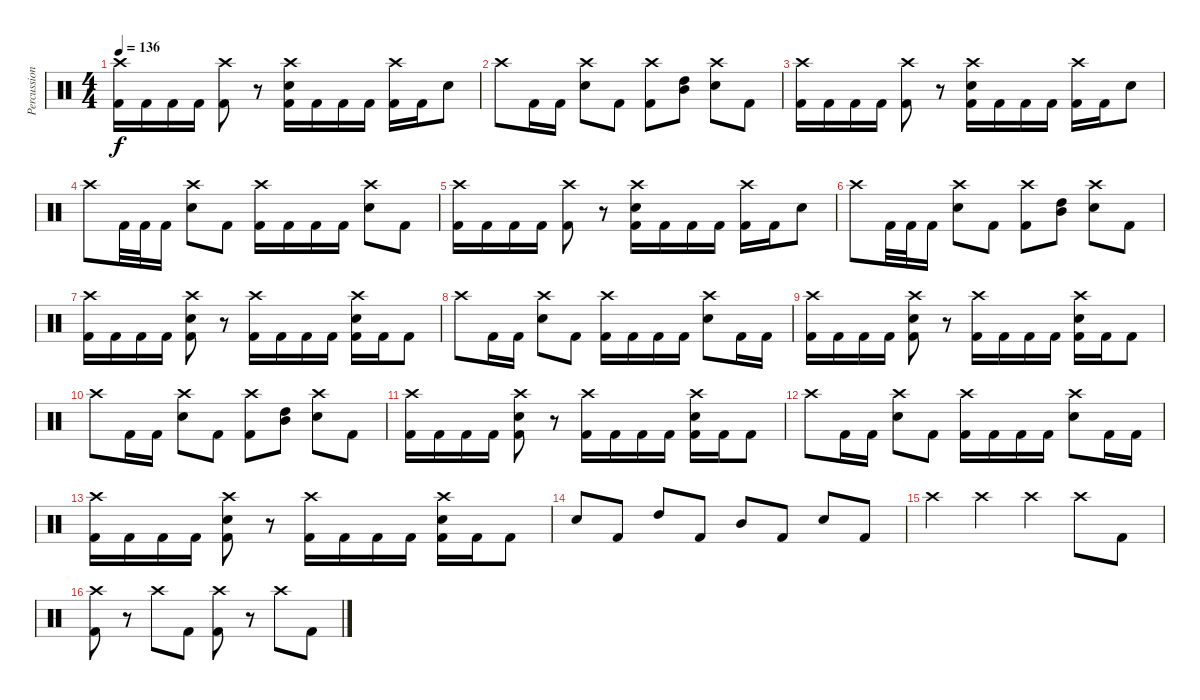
\track ("Percussion" "Percussion") {instrument percussion}
\staff {score}
\articulation defaults
\ts (4 4)
\tempo 136
\clef neutral
\ks c
("Crash high (hit)" "Kick (hit) 2").16{dy f} "Kick (hit) 2".16 "Kick (hit) 2".16 "Kick (hit) 2".16 ("Crash high (hit)" "Kick (hit) 2").8 r.8 ("Crash high (hit)" "Electric Snare (hit)" "Kick (hit) 2").16 "Kick (hit) 2".16 "Kick (hit) 2".16 "Kick (hit) 2".16 ("Crash high (hit)" "Kick (hit) 2").16 "Kick (hit) 2".16 "Electric Snare (hit)".8 |
"Crash high (hit)".8 "Kick (hit) 2".16 "Kick (hit) 2".16 ("Crash high (hit)" "Electric Snare (hit)").8 "Kick (hit) 2".8 ("Crash high (hit)" "Kick (hit) 2").8 ("High Tom (hit)" "Mid Tom (hit)").8 ("Crash high (hit)" "Electric Snare (hit)").8 "Kick (hit) 2".8 |
("Crash high (hit)" "Kick (hit) 2").16 "Kick (hit) 2".16 "Kick (hit) 2".16 "Kick (hit) 2".16 ("Crash high (hit)" "Kick (hit) 2").8 r.8 ("Crash high (hit)" "Electric Snare (hit)" "Kick (hit) 2").16 "Kick (hit) 2".16 "Kick (hit) 2".16 "Kick (hit) 2".16 ("Crash high (hit)" "Kick (hit) 2").16 "Kick (hit) 2".16 "Electric Snare (hit)".8 |
"Crash high (hit)".8 "Kick (hit) 2".32 "Kick (hit) 2".32 "Kick (hit) 2".16 ("Crash high (hit)" "Electric Snare (hit)").8 "Kick (hit) 2".8 ("Crash high (hit)" "Kick (hit) 2").16 "Kick (hit) 2".16 "Kick (hit) 2".16 "Kick (hit) 2".16 ("Crash high (hit)" "Electric Snare (hit)").8 "Kick (hit) 2".8 |
("Crash high (hit)" "Kick (hit) 2").16 "Kick (hit) 2".16 "Kick (hit) 2".16 "Kick (hit) 2".16 ("Crash high (hit)" "Kick (hit) 2").8 r.8 ("Crash high (hit)" "Electric Snare (hit)" "Kick (hit) 2").16 "Kick (hit) 2".16 "Kick (hit) 2".16 "Kick (hit) 2".16 ("Crash high (hit)" "Kick (hit) 2").16 "Kick (hit) 2".16 "Electric Snare (hit)".8 |
"Crash high (hit)".8 "Kick (hit) 2".32 "Kick (hit) 2".32 "Kick (hit) 2".16 ("Crash high (hit)" "Electric Snare (hit)").8 "Kick (hit) 2".8 ("Crash high (hit)" "Kick (hit) 2").8 ("High Tom (hit)" "Mid Tom (hit)").8 ("Crash high (hit)" "Electric Snare (hit)").8 "Kick (hit) 2".8 |
("Crash high (hit)" "Kick (hit) 2").16 "Kick (hit) 2".16 "Kick (hit) 2".16 "Kick (hit) 2".16 ("Crash high (hit)" "Electric Snare (hit)" "Kick (hit) 2").8 r.8 ("Crash high (hit)" "Kick (hit) 2").16 "Kick (hit) 2".16 "Kick (hit) 2".16 "Kick (hit) 2".16 ("Crash high (hit)" "Electric Snare (hit)" "Kick (hit) 2").16 "Kick (hit) 2".16 "Kick (hit) 2".8 |
"Crash high (hit)".8 "Kick (hit) 2".16 "Kick (hit) 2".16 ("Crash high (hit)" "Electric Snare (hit)").8 "Kick (hit) 2".8 ("Crash high (hit)" "Kick (hit) 2").16 "Kick (hit) 2".16 "Kick (hit) 2".16 "Kick (hit) 2".16 ("Crash high (hit)" "Electric Snare (hit)").8 "Kick (hit) 2".16 "Kick (hit) 2".16 |
("Crash high (hit)" "Kick (hit) 2").16 "Kick (hit) 2".16 "Kick (hit) 2".16 "Kick (hit) 2".16 ("Crash high (hit)" "Electric Snare (hit)" "Kick (hit) 2").8 r.8 ("Crash high (hit)" "Kick (hit) 2").16 "Kick (hit) 2".16 "Kick (hit) 2".16 "Kick (hit) 2".16 ("Crash high (hit)" "Electric Snare (hit)" "Kick (hit) 2").16 "Kick (hit) 2".16 "Kick (hit) 2".8 |
"Crash high (hit)".8 "Kick (hit) 2".16 "Kick (hit) 2".16 ("Crash high (hit)" "Electric Snare (hit)").8 "Kick (hit) 2".8 ("Crash high (hit)" "Kick (hit) 2").8 ("High Tom (hit)" "Mid Tom (hit)").8 ("Crash high (hit)" "Electric Snare (hit)").8 "Kick (hit) 2".8 |
("Crash high (hit)" "Kick (hit) 2").16 "Kick (hit) 2".16 "Kick (hit) 2".16 "Kick (hit) 2".16 ("Crash high (hit)" "Electric Snare (hit)" "Kick (hit) 2").8 r.8 ("Crash high (hit)" "Kick (hit) 2").16 "Kick (hit) 2".16 "Kick (hit) 2".16 "Kick (hit) 2".16 ("Crash high (hit)" "Electric Snare (hit)" "Kick (hit) 2").16 "Kick (hit) 2".16 "Kick (hit) 2".8 |
"Crash high (hit)".8 "Kick (hit) 2".16 "Kick (hit) 2".16 ("Crash high (hit)" "Electric Snare (hit)").8 "Kick (hit) 2".8 ("Crash high (hit)" "Kick (hit) 2").16 "Kick (hit) 2".16 "Kick (hit) 2".16 "Kick (hit) 2".16 ("Crash high (hit)" "Electric Snare (hit)").8 "Kick (hit) 2".16 "Kick (hit) 2".16 |
("Crash high (hit)" "Kick (hit) 2").16 "Kick (hit) 2".16 "Kick (hit) 2".16 "Kick (hit) 2".16 ("Crash high (hit)" "Electric Snare (hit)" "Kick (hit) 2").8 r.8 ("Crash high (hit)" "Kick (hit) 2").16 "Kick (hit) 2".16 "Kick (hit) 2".16 "Kick (hit) 2".16 ("Crash high (hit)" "Electric Snare (hit)" "Kick (hit) 2").16 "Kick (hit) 2".16 "Kick (hit) 2".8 |
"Electric Snare (hit)".8 "Kick (hit) 2".8 "High Tom (hit)".8 "Kick (hit) 2".8 "Mid Tom (hit)".8 "Kick (hit) 2".8 "Electric Snare (hit)".8 "Kick (hit) 2".8 |
"Crash high (hit)".4 "Crash high (hit)".4 "Crash high (hit)".4 "Crash high (hit)".8 "Kick (hit) 2".8 |
("Crash high (hit)" "Kick (hit) 2").8 r.8 "Crash high (hit)".8 "Kick (hit) 2".8 ("Crash high (hit)" "Kick (hit) 2").8 r.8 "Crash high (hit)".8 "Kick (hit) 2".8
